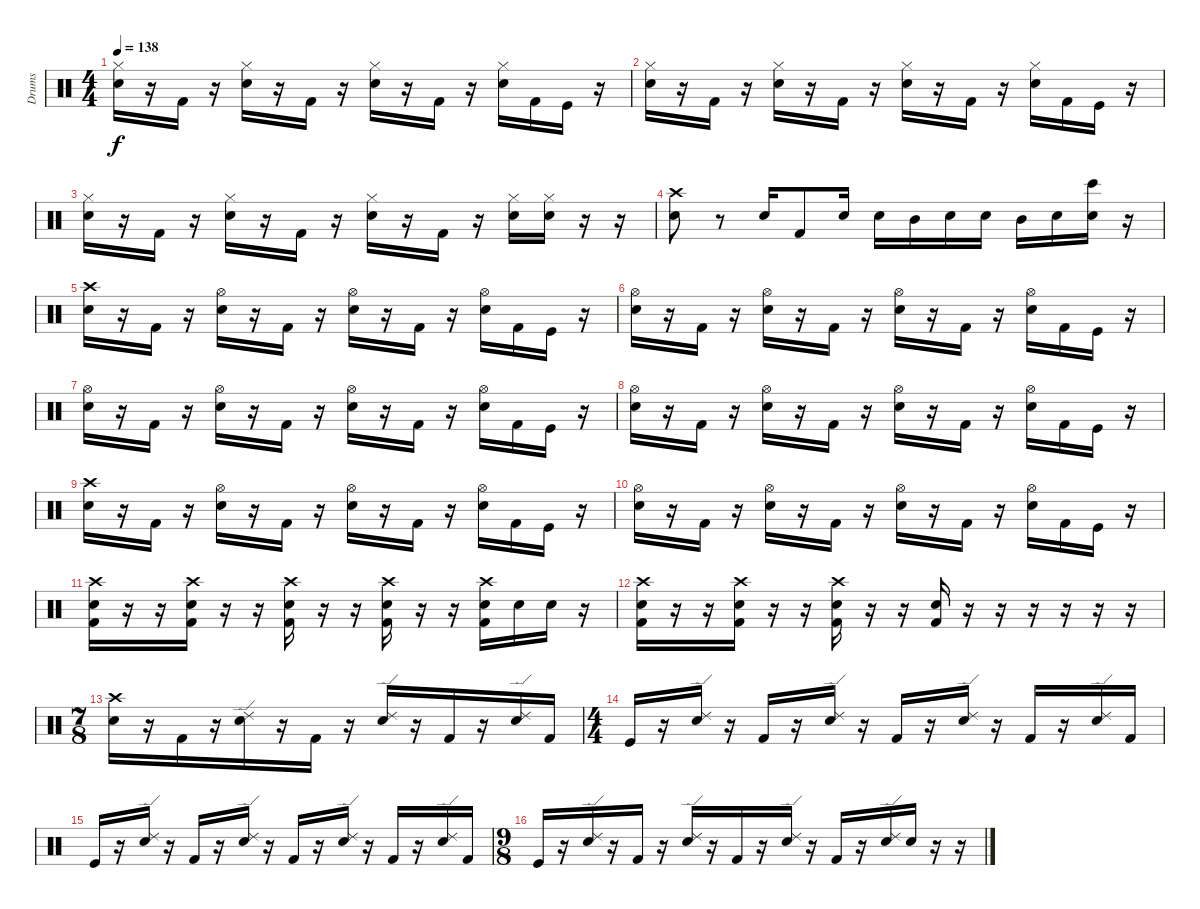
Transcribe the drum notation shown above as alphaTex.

\track ("Drums" "Drums") {instrument percussion}
\staff {score}
\articulation defaults
\ts (4 4)
\tempo 138
\clef neutral
\ks c
("Hi-Hat (closed)" "Snare (hit) 2").16{dy f} r.16 "Kick (hit) 2".16 r.16 ("Hi-Hat (closed)" "Snare (hit) 2").16 r.16 "Kick (hit) 2".16 r.16 ("Hi-Hat (closed)" "Snare (hit) 2").16 r.16 "Kick (hit) 2".16 r.16 ("Hi-Hat (closed)" "Snare (hit) 2").16 "Kick (hit) 2".16 "Kick (hit)".16 r.16 |
("Hi-Hat (closed)" "Snare (hit) 2").16 r.16 "Kick (hit) 2".16 r.16 ("Hi-Hat (closed)" "Snare (hit) 2").16 r.16 "Kick (hit) 2".16 r.16 ("Hi-Hat (closed)" "Snare (hit) 2").16 r.16 "Kick (hit) 2".16 r.16 ("Hi-Hat (closed)" "Snare (hit) 2").16 "Kick (hit) 2".16 "Kick (hit)".16 r.16 |
("Hi-Hat (closed)" "Snare (hit) 2").16 r.16 "Kick (hit) 2".16 r.16 ("Hi-Hat (closed)" "Snare (hit) 2").16 r.16 "Kick (hit) 2".16 r.16 ("Hi-Hat (closed)" "Snare (hit) 2").16 r.16 "Kick (hit) 2".16 r.16 ("Hi-Hat (closed)" "Snare (hit) 2").16 ("Hi-Hat (closed)" "Snare (hit) 2").16 r.16 r.16 |
("Crash high (hit)" "Snare (hit) 2").8 r.8 "Snare (hit) 2".16 "Kick (hit) 2".8 "Snare (hit) 2".16 "Snare (hit) 2".16 "Mid Tom (hit)".16 "Snare (hit) 2".16 "Snare (hit) 2".16 "Mid Tom (hit)".16 "Snare (hit) 2".16 ("Bongo High (hit)" "Snare (hit) 2").16 r.16 |
("Crash high (hit)" "Snare (hit) 2").16 r.16 "Kick (hit) 2".16 r.16 ("Hi-Hat (open)" "Snare (hit) 2").16 r.16 "Kick (hit) 2".16 r.16 ("Hi-Hat (open)" "Snare (hit) 2").16 r.16 "Kick (hit) 2".16 r.16 ("Hi-Hat (open)" "Snare (hit) 2").16 "Kick (hit) 2".16 "Kick (hit)".16 r.16 |
("Hi-Hat (open)" "Snare (hit) 2").16 r.16 "Kick (hit) 2".16 r.16 ("Hi-Hat (open)" "Snare (hit) 2").16 r.16 "Kick (hit) 2".16 r.16 ("Hi-Hat (open)" "Snare (hit) 2").16 r.16 "Kick (hit) 2".16 r.16 ("Hi-Hat (open)" "Snare (hit) 2").16 "Kick (hit) 2".16 "Kick (hit)".16 r.16 |
("Hi-Hat (open)" "Snare (hit) 2").16 r.16 "Kick (hit) 2".16 r.16 ("Hi-Hat (open)" "Snare (hit) 2").16 r.16 "Kick (hit) 2".16 r.16 ("Hi-Hat (open)" "Snare (hit) 2").16 r.16 "Kick (hit) 2".16 r.16 ("Hi-Hat (open)" "Snare (hit) 2").16 "Kick (hit) 2".16 "Kick (hit)".16 r.16 |
("Hi-Hat (open)" "Snare (hit) 2").16 r.16 "Kick (hit) 2".16 r.16 ("Hi-Hat (open)" "Snare (hit) 2").16 r.16 "Kick (hit) 2".16 r.16 ("Hi-Hat (open)" "Snare (hit) 2").16 r.16 "Kick (hit) 2".16 r.16 ("Hi-Hat (open)" "Snare (hit) 2").16 "Kick (hit) 2".16 "Kick (hit)".16 r.16 |
("Crash high (hit)" "Snare (hit) 2").16 r.16 "Kick (hit) 2".16 r.16 ("Hi-Hat (open)" "Snare (hit) 2").16 r.16 "Kick (hit) 2".16 r.16 ("Hi-Hat (open)" "Snare (hit) 2").16 r.16 "Kick (hit) 2".16 r.16 ("Hi-Hat (open)" "Snare (hit) 2").16 "Kick (hit) 2".16 "Kick (hit)".16 r.16 |
("Hi-Hat (open)" "Snare (hit) 2").16 r.16 "Kick (hit) 2".16 r.16 ("Hi-Hat (open)" "Snare (hit) 2").16 r.16 "Kick (hit) 2".16 r.16 ("Hi-Hat (open)" "Snare (hit) 2").16 r.16 "Kick (hit) 2".16 r.16 ("Hi-Hat (open)" "Snare (hit) 2").16 "Kick (hit) 2".16 "Kick (hit)".16 r.16 |
("Crash high (hit)" "Snare (hit) 2" "Kick (hit) 2").16 r.16 r.16 ("Crash high (hit)" "Snare (hit) 2" "Kick (hit) 2").16 r.16 r.16 ("Crash high (hit)" "Snare (hit) 2" "Kick (hit) 2").16 r.16 r.16 ("Crash high (hit)" "Snare (hit) 2" "Kick (hit) 2").16 r.16 r.16 ("Crash high (hit)" "Snare (hit) 2" "Kick (hit) 2").16 "Snare (hit) 2".16 "Snare (hit) 2".16 r.16 |
("Crash high (hit)" "Snare (hit) 2" "Kick (hit) 2").16 r.16 r.16 ("Crash high (hit)" "Snare (hit) 2" "Kick (hit) 2").16 r.16 r.16 ("Crash high (hit)" "Snare (hit) 2" "Kick (hit) 2").16 r.16 r.16 ("Snare (hit) 2" "Kick (hit) 2").16 r.16 r.16 r.16 r.16 r.16 r.16 |
\ts (7 8)
\section ("" "")
("Crash high (hit)" "Snare (hit) 2").16 r.16 "Kick (hit) 2".16 r.16 ("Ride (edge) 2" "Snare (hit) 2").16 r.16 "Kick (hit) 2".16 r.16 ("Ride (edge) 2" "Snare (hit) 2").16 r.16 "Kick (hit) 2".16 r.16 ("Ride (edge) 2" "Snare (hit) 2").16 "Kick (hit) 2".16 |
\ts (4 4)
"Kick (hit)".16 r.16 ("Ride (edge) 2" "Snare (hit) 2").16 r.16 "Kick (hit) 2".16 r.16 ("Ride (edge) 2" "Snare (hit) 2").16 r.16 "Kick (hit) 2".16 r.16 ("Ride (edge) 2" "Snare (hit) 2").16 r.16 "Kick (hit) 2".16 r.16 ("Ride (edge) 2" "Snare (hit) 2").16 "Kick (hit) 2".16 |
"Kick (hit)".16 r.16 ("Ride (edge) 2" "Snare (hit) 2").16 r.16 "Kick (hit) 2".16 r.16 ("Ride (edge) 2" "Snare (hit) 2").16 r.16 "Kick (hit) 2".16 r.16 ("Ride (edge) 2" "Snare (hit) 2").16 r.16 "Kick (hit) 2".16 r.16 ("Ride (edge) 2" "Snare (hit) 2").16 "Kick (hit) 2".16 |
\ts (9 8)
"Kick (hit)".16 r.16 ("Ride (edge) 2" "Snare (hit) 2").16 r.16 "Kick (hit) 2".16 r.16 ("Ride (edge) 2" "Snare (hit) 2").16 r.16 "Kick (hit) 2".16 r.16 ("Ride (edge) 2" "Snare (hit) 2").16 r.16 "Kick (hit) 2".16 r.16 ("Ride (edge) 2" "Snare (hit) 2").16 "Snare (hit) 2".16 r.16 r.16
